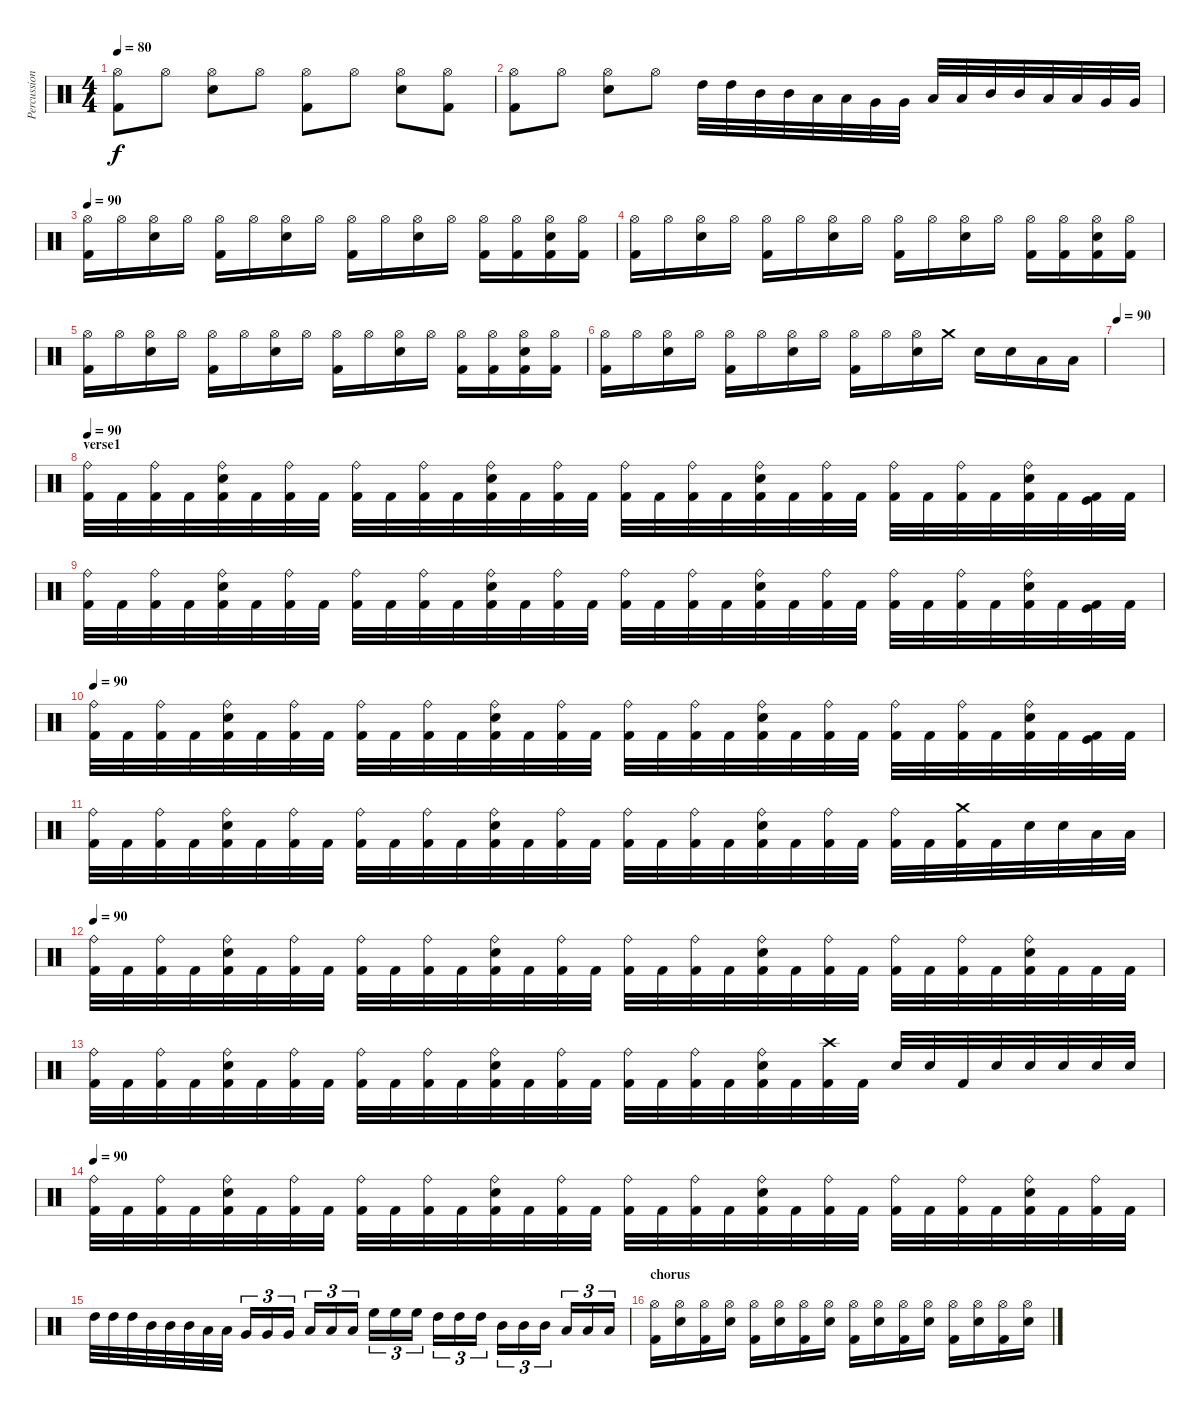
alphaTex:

\track ("Percussions" "Percussion") {instrument percussion}
\staff {score}
\articulation defaults
\ts (4 4)
\tempo 80
\clef neutral
\ks c
("Hi-Hat (open)" "Kick (hit) 2").8{dy f} "Hi-Hat (open)".8 ("Hi-Hat (open)" "Electric Snare (hit)").8 "Hi-Hat (open)".8 ("Hi-Hat (open)" "Kick (hit) 2").8 "Hi-Hat (open)".8 ("Hi-Hat (open)" "Electric Snare (hit)").8 ("Hi-Hat (open)" "Kick (hit) 2").8 |
("Hi-Hat (open)" "Kick (hit) 2").8 "Hi-Hat (open)".8 ("Hi-Hat (open)" "Electric Snare (hit)").8 "Hi-Hat (open)".8 "High Tom (hit)".32 "High Tom (hit)".32 "Mid Tom (hit)".32 "Mid Tom (hit)".32 "Low Tom (hit)".32 "Low Tom (hit)".32 "Very Low Tom (hit)".32 "Very Low Tom (hit)".32 "Low Floor Tom (hit)".32 "Low Floor Tom (hit)".32 "Mid Tom (hit)".32 "Mid Tom (hit)".32 "Low Tom (hit)".32 "Low Tom (hit)".32 "Very Low Tom (hit)".32 "Very Low Tom (hit)".32 |
\tempo 90
("Hi-Hat (open)" "Kick (hit) 2").16 "Hi-Hat (open)".16 ("Hi-Hat (open)" "Electric Snare (hit)").16 "Hi-Hat (open)".16 ("Hi-Hat (open)" "Kick (hit) 2").16 "Hi-Hat (open)".16 ("Hi-Hat (open)" "Electric Snare (hit)").16 "Hi-Hat (open)".16 ("Hi-Hat (open)" "Kick (hit) 2").16 "Hi-Hat (open)".16 ("Hi-Hat (open)" "Electric Snare (hit)").16 "Hi-Hat (open)".16 ("Hi-Hat (open)" "Kick (hit) 2").16 ("Hi-Hat (open)" "Kick (hit) 2").16 ("Hi-Hat (open)" "Electric Snare (hit)" "Kick (hit) 2").16 ("Hi-Hat (open)" "Kick (hit) 2").16 |
("Hi-Hat (open)" "Kick (hit) 2").16 "Hi-Hat (open)".16 ("Hi-Hat (open)" "Electric Snare (hit)").16 "Hi-Hat (open)".16 ("Hi-Hat (open)" "Kick (hit) 2").16 "Hi-Hat (open)".16 ("Hi-Hat (open)" "Electric Snare (hit)").16 "Hi-Hat (open)".16 ("Hi-Hat (open)" "Kick (hit) 2").16 "Hi-Hat (open)".16 ("Hi-Hat (open)" "Electric Snare (hit)").16 "Hi-Hat (open)".16 ("Hi-Hat (open)" "Kick (hit) 2").16 ("Hi-Hat (open)" "Kick (hit) 2").16 ("Hi-Hat (open)" "Electric Snare (hit)" "Kick (hit) 2").16 ("Hi-Hat (open)" "Kick (hit) 2").16 |
("Hi-Hat (open)" "Kick (hit) 2").16 "Hi-Hat (open)".16 ("Hi-Hat (open)" "Electric Snare (hit)").16 "Hi-Hat (open)".16 ("Hi-Hat (open)" "Kick (hit) 2").16 "Hi-Hat (open)".16 ("Hi-Hat (open)" "Electric Snare (hit)").16 "Hi-Hat (open)".16 ("Hi-Hat (open)" "Kick (hit) 2").16 "Hi-Hat (open)".16 ("Hi-Hat (open)" "Electric Snare (hit)").16 "Hi-Hat (open)".16 ("Hi-Hat (open)" "Kick (hit) 2").16 ("Hi-Hat (open)" "Kick (hit) 2").16 ("Hi-Hat (open)" "Electric Snare (hit)" "Kick (hit) 2").16 ("Hi-Hat (open)" "Kick (hit) 2").16 |
("Hi-Hat (open)" "Kick (hit) 2").16 "Hi-Hat (open)".16 ("Hi-Hat (open)" "Electric Snare (hit)").16 "Hi-Hat (open)".16 ("Hi-Hat (open)" "Kick (hit) 2").16 "Hi-Hat (open)".16 ("Hi-Hat (open)" "Electric Snare (hit)").16 "Hi-Hat (open)".16 ("Hi-Hat (open)" "Kick (hit) 2").16 "Hi-Hat (open)".16 ("Hi-Hat (open)" "Electric Snare (hit)").16 "Crash medium (hit)".16 "Electric Snare (hit)".16 "Electric Snare (hit)".16 "Low Tom (hit)".16 "Low Tom (hit)".16 |
\tempo 90
|
\section ("" "verse1")
\tempo 90
("Ride (bell)" "Kick (hit) 2").32 "Kick (hit) 2".32 ("Ride (bell)" "Kick (hit) 2").32 "Kick (hit) 2".32 ("Ride (bell)" "Electric Snare (hit)" "Kick (hit) 2").32 "Kick (hit) 2".32 ("Ride (bell)" "Kick (hit) 2").32 "Kick (hit) 2".32 ("Ride (bell)" "Kick (hit) 2").32 "Kick (hit) 2".32 ("Ride (bell)" "Kick (hit) 2").32 "Kick (hit) 2".32 ("Ride (bell)" "Electric Snare (hit)" "Kick (hit) 2").32 "Kick (hit) 2".32 ("Ride (bell)" "Kick (hit) 2").32 "Kick (hit) 2".32 ("Ride (bell)" "Kick (hit) 2").32 "Kick (hit) 2".32 ("Ride (bell)" "Kick (hit) 2").32 "Kick (hit) 2".32 ("Ride (bell)" "Electric Snare (hit)" "Kick (hit) 2").32 "Kick (hit) 2".32 ("Ride (bell)" "Kick (hit) 2").32 "Kick (hit) 2".32 ("Ride (bell)" "Kick (hit) 2").32 "Kick (hit) 2".32 ("Ride (bell)" "Kick (hit) 2").32 "Kick (hit) 2".32 ("Ride (bell)" "Electric Snare (hit)" "Kick (hit) 2").32 "Kick (hit) 2".32 ("Kick (hit)" "Kick (hit) 2").32 "Kick (hit) 2".32 |
("Ride (bell)" "Kick (hit) 2").32 "Kick (hit) 2".32 ("Ride (bell)" "Kick (hit) 2").32 "Kick (hit) 2".32 ("Ride (bell)" "Electric Snare (hit)" "Kick (hit) 2").32 "Kick (hit) 2".32 ("Ride (bell)" "Kick (hit) 2").32 "Kick (hit) 2".32 ("Ride (bell)" "Kick (hit) 2").32 "Kick (hit) 2".32 ("Ride (bell)" "Kick (hit) 2").32 "Kick (hit) 2".32 ("Ride (bell)" "Electric Snare (hit)" "Kick (hit) 2").32 "Kick (hit) 2".32 ("Ride (bell)" "Kick (hit) 2").32 "Kick (hit) 2".32 ("Ride (bell)" "Kick (hit) 2").32 "Kick (hit) 2".32 ("Ride (bell)" "Kick (hit) 2").32 "Kick (hit) 2".32 ("Ride (bell)" "Electric Snare (hit)" "Kick (hit) 2").32 "Kick (hit) 2".32 ("Ride (bell)" "Kick (hit) 2").32 "Kick (hit) 2".32 ("Ride (bell)" "Kick (hit) 2").32 "Kick (hit) 2".32 ("Ride (bell)" "Kick (hit) 2").32 "Kick (hit) 2".32 ("Ride (bell)" "Electric Snare (hit)" "Kick (hit) 2").32 "Kick (hit) 2".32 ("Kick (hit)" "Kick (hit) 2").32 "Kick (hit) 2".32 |
\tempo 90
("Ride (bell)" "Kick (hit) 2").32 "Kick (hit) 2".32 ("Ride (bell)" "Kick (hit) 2").32 "Kick (hit) 2".32 ("Ride (bell)" "Electric Snare (hit)" "Kick (hit) 2").32 "Kick (hit) 2".32 ("Ride (bell)" "Kick (hit) 2").32 "Kick (hit) 2".32 ("Ride (bell)" "Kick (hit) 2").32 "Kick (hit) 2".32 ("Ride (bell)" "Kick (hit) 2").32 "Kick (hit) 2".32 ("Ride (bell)" "Electric Snare (hit)" "Kick (hit) 2").32 "Kick (hit) 2".32 ("Ride (bell)" "Kick (hit) 2").32 "Kick (hit) 2".32 ("Ride (bell)" "Kick (hit) 2").32 "Kick (hit) 2".32 ("Ride (bell)" "Kick (hit) 2").32 "Kick (hit) 2".32 ("Ride (bell)" "Electric Snare (hit)" "Kick (hit) 2").32 "Kick (hit) 2".32 ("Ride (bell)" "Kick (hit) 2").32 "Kick (hit) 2".32 ("Ride (bell)" "Kick (hit) 2").32 "Kick (hit) 2".32 ("Ride (bell)" "Kick (hit) 2").32 "Kick (hit) 2".32 ("Ride (bell)" "Electric Snare (hit)" "Kick (hit) 2").32 "Kick (hit) 2".32 ("Kick (hit)" "Kick (hit) 2").32 "Kick (hit) 2".32 |
("Ride (bell)" "Kick (hit) 2").32 "Kick (hit) 2".32 ("Ride (bell)" "Kick (hit) 2").32 "Kick (hit) 2".32 ("Ride (bell)" "Electric Snare (hit)" "Kick (hit) 2").32 "Kick (hit) 2".32 ("Ride (bell)" "Kick (hit) 2").32 "Kick (hit) 2".32 ("Ride (bell)" "Kick (hit) 2").32 "Kick (hit) 2".32 ("Ride (bell)" "Kick (hit) 2").32 "Kick (hit) 2".32 ("Ride (bell)" "Electric Snare (hit)" "Kick (hit) 2").32 "Kick (hit) 2".32 ("Ride (bell)" "Kick (hit) 2").32 "Kick (hit) 2".32 ("Ride (bell)" "Kick (hit) 2").32 "Kick (hit) 2".32 ("Ride (bell)" "Kick (hit) 2").32 "Kick (hit) 2".32 ("Ride (bell)" "Electric Snare (hit)" "Kick (hit) 2").32 "Kick (hit) 2".32 ("Ride (bell)" "Kick (hit) 2").32 "Kick (hit) 2".32 ("Ride (bell)" "Kick (hit) 2").32 "Kick (hit) 2".32 ("Crash medium (hit)" "Kick (hit) 2").32 "Kick (hit) 2".32 "Electric Snare (hit)".32 "Electric Snare (hit)".32 "Low Tom (hit)".32 "Low Tom (hit)".32 |
\tempo 90
("Ride (bell)" "Kick (hit) 2").32 "Kick (hit) 2".32 ("Ride (bell)" "Kick (hit) 2").32 "Kick (hit) 2".32 ("Ride (bell)" "Electric Snare (hit)" "Kick (hit) 2").32 "Kick (hit) 2".32 ("Ride (bell)" "Kick (hit) 2").32 "Kick (hit) 2".32 ("Ride (bell)" "Kick (hit) 2").32 "Kick (hit) 2".32 ("Ride (bell)" "Kick (hit) 2").32 "Kick (hit) 2".32 ("Ride (bell)" "Electric Snare (hit)" "Kick (hit) 2").32 "Kick (hit) 2".32 ("Ride (bell)" "Kick (hit) 2").32 "Kick (hit) 2".32 ("Ride (bell)" "Kick (hit) 2").32 "Kick (hit) 2".32 ("Ride (bell)" "Kick (hit) 2").32 "Kick (hit) 2".32 ("Ride (bell)" "Electric Snare (hit)" "Kick (hit) 2").32 "Kick (hit) 2".32 ("Ride (bell)" "Kick (hit) 2").32 "Kick (hit) 2".32 ("Ride (bell)" "Kick (hit) 2").32 "Kick (hit) 2".32 ("Ride (bell)" "Kick (hit) 2").32 "Kick (hit) 2".32 ("Ride (bell)" "Electric Snare (hit)" "Kick (hit) 2").32 "Kick (hit) 2".32 "Kick (hit) 2".32 "Kick (hit) 2".32 |
("Ride (bell)" "Kick (hit) 2").32 "Kick (hit) 2".32 ("Ride (bell)" "Kick (hit) 2").32 "Kick (hit) 2".32 ("Ride (bell)" "Electric Snare (hit)" "Kick (hit) 2").32 "Kick (hit) 2".32 ("Ride (bell)" "Kick (hit) 2").32 "Kick (hit) 2".32 ("Ride (bell)" "Kick (hit) 2").32 "Kick (hit) 2".32 ("Ride (bell)" "Kick (hit) 2").32 "Kick (hit) 2".32 ("Ride (bell)" "Electric Snare (hit)" "Kick (hit) 2").32 "Kick (hit) 2".32 ("Ride (bell)" "Kick (hit) 2").32 "Kick (hit) 2".32 ("Ride (bell)" "Kick (hit) 2").32 "Kick (hit) 2".32 ("Ride (bell)" "Kick (hit) 2").32 "Kick (hit) 2".32 ("Ride (bell)" "Electric Snare (hit)" "Kick (hit) 2").32 "Kick (hit) 2".32 ("Crash high (hit)" "Kick (hit) 2").32 "Kick (hit) 2".32 "Electric Snare (hit)".32 "Electric Snare (hit)".32 "Kick (hit) 2".32 "Electric Snare (hit)".32 "Electric Snare (hit)".32 "Electric Snare (hit)".32 "Electric Snare (hit)".32 "Electric Snare (hit)".32 |
\tempo 90
("Ride (bell)" "Kick (hit) 2").32 "Kick (hit) 2".32 ("Ride (bell)" "Kick (hit) 2").32 "Kick (hit) 2".32 ("Ride (bell)" "Electric Snare (hit)" "Kick (hit) 2").32 "Kick (hit) 2".32 ("Ride (bell)" "Kick (hit) 2").32 "Kick (hit) 2".32 ("Ride (bell)" "Kick (hit) 2").32 "Kick (hit) 2".32 ("Ride (bell)" "Kick (hit) 2").32 "Kick (hit) 2".32 ("Ride (bell)" "Electric Snare (hit)" "Kick (hit) 2").32 "Kick (hit) 2".32 ("Ride (bell)" "Kick (hit) 2").32 "Kick (hit) 2".32 ("Ride (bell)" "Kick (hit) 2").32 "Kick (hit) 2".32 ("Ride (bell)" "Kick (hit) 2").32 "Kick (hit) 2".32 ("Ride (bell)" "Electric Snare (hit)" "Kick (hit) 2").32 "Kick (hit) 2".32 ("Ride (bell)" "Kick (hit) 2").32 "Kick (hit) 2".32 ("Ride (bell)" "Kick (hit) 2").32 "Kick (hit) 2".32 ("Ride (bell)" "Kick (hit) 2").32 "Kick (hit) 2".32 ("Ride (bell)" "Electric Snare (hit)" "Kick (hit) 2").32 "Kick (hit) 2".32 ("Ride (bell)" "Kick (hit) 2").32 "Kick (hit) 2".32 |
"High Tom (hit)".32 "High Tom (hit)".32 "High Tom (hit)".32 "Mid Tom (hit)".32 "Mid Tom (hit)".32 "Mid Tom (hit)".32 "Low Tom (hit)".32 "Low Tom (hit)".32 "Very Low Tom (hit)".16{tu (3 2)} "Very Low Tom (hit)".16{tu (3 2)} "Very Low Tom (hit)".16{tu (3 2)} "Low Floor Tom (hit)".16{tu (3 2)} "Low Floor Tom (hit)".16{tu (3 2)} "Low Floor Tom (hit)".16{tu (3 2)} "High Floor Tom (hit)".16{tu (3 2)} "High Floor Tom (hit)".16{tu (3 2)} "High Floor Tom (hit)".16{tu (3 2)} "High Tom (hit)".16{tu (3 2)} "High Tom (hit)".16{tu (3 2)} "High Tom (hit)".16{tu (3 2)} "Mid Tom (hit)".16{tu (3 2)} "Mid Tom (hit)".16{tu (3 2)} "Mid Tom (hit)".16{tu (3 2)} "Low Tom (hit)".16{tu (3 2)} "Low Tom (hit)".16{tu (3 2)} "Low Tom (hit)".16{tu (3 2)} |
\section ("" "chorus")
("Hi-Hat (open)" "Kick (hit) 2").16 ("Hi-Hat (open)" "Electric Snare (hit)").16 ("Hi-Hat (open)" "Kick (hit) 2").16 ("Hi-Hat (open)" "Electric Snare (hit)").16 ("Hi-Hat (open)" "Kick (hit) 2").16 ("Hi-Hat (open)" "Electric Snare (hit)").16 ("Hi-Hat (open)" "Kick (hit) 2").16 ("Hi-Hat (open)" "Electric Snare (hit)").16 ("Hi-Hat (open)" "Kick (hit) 2").16 ("Hi-Hat (open)" "Electric Snare (hit)").16 ("Hi-Hat (open)" "Kick (hit) 2").16 ("Hi-Hat (open)" "Electric Snare (hit)").16 ("Hi-Hat (open)" "Kick (hit) 2").16 ("Hi-Hat (open)" "Electric Snare (hit)").16 ("Hi-Hat (open)" "Kick (hit) 2").16 ("Hi-Hat (open)" "Electric Snare (hit)").16
